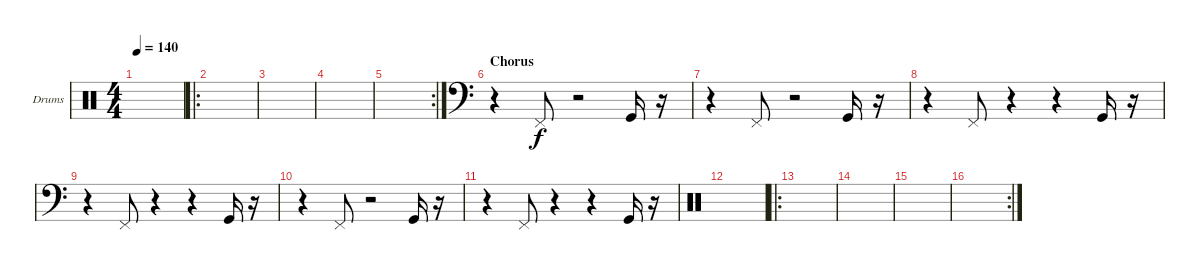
\defaultSystemsLayout 4
\bracketExtendMode nobrackets
\firstSystemTrackNameOrientation horizontal
\otherSystemsTrackNameOrientation horizontal
\track ("Nazar" "Drums") {instrument percussion}
\staff {score}
\articulation defaults
\ts (4 4)
\tempo 140
\clef neutral
\ks c
|
\ro
|
|
|
\rc 2
|
\section ("" "Chorus")
\clef f4
r.4 "Pedal Hi-Hat (hit)".8 r.2 "Kick (hit)".16 r.16 |
r.4 "Pedal Hi-Hat (hit)".8 r.2 "Kick (hit)".16 r.16 |
r.4 "Pedal Hi-Hat (hit)".8 r.4 r.4 "Kick (hit)".16 r.16 |
r.4 "Pedal Hi-Hat (hit)".8 r.4 r.4 "Kick (hit)".16 r.16 |
r.4 "Pedal Hi-Hat (hit)".8 r.2 "Kick (hit)".16 r.16 |
r.4 "Pedal Hi-Hat (hit)".8 r.4 r.4 "Kick (hit)".16 r.16 |
\clef neutral
|
\ro
|
|
|
\rc 2
